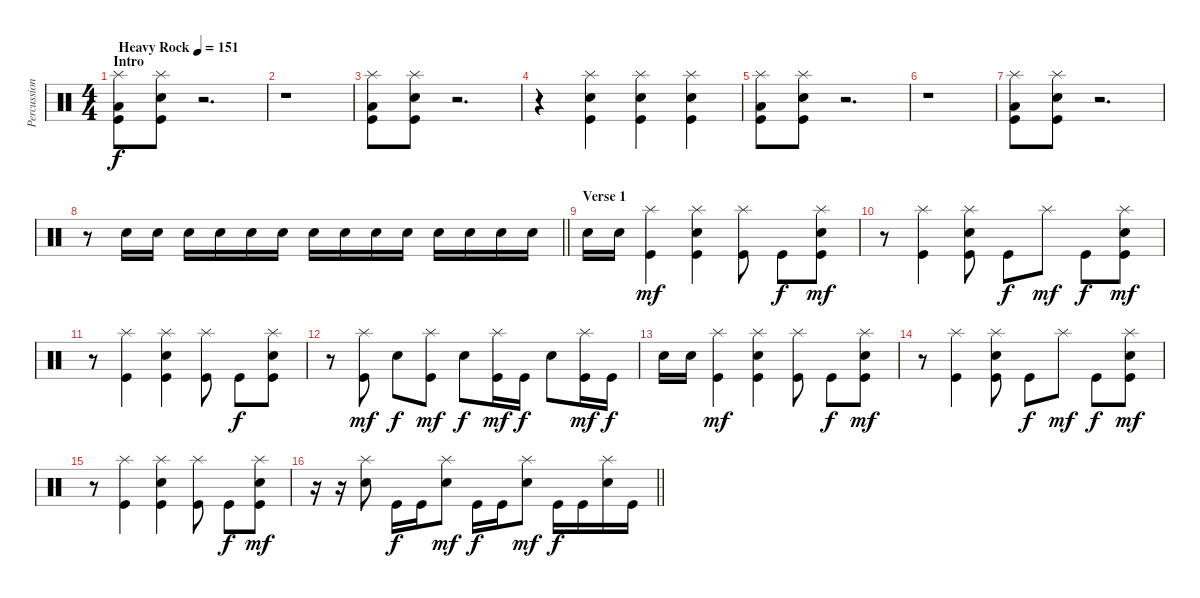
\track ("Percussion" "Percussion") {instrument percussion}
\staff {score}
\articulation defaults
\ts (4 4)
\section ("" "Intro")
\tempo (151 "Heavy Rock")
\clef neutral
\ks c
("Splash (hit)" "Low Tom (hit)" "Kick (hit)").8{dy f} ("Splash (hit)" "Snare (hit) 2" "Kick (hit)").8 r.2{d} |
r.1 |
("Splash (hit)" "Low Tom (hit)" "Kick (hit)").8 ("Splash (hit)" "Snare (hit) 2" "Kick (hit)").8 r.2{d} |
r.4 ("Splash (hit)" "Electric Snare (hit)" "Kick (hit)").4 ("Splash (hit)" "Snare (hit) 2" "Kick (hit)").4 ("Splash (hit)" "Electric Snare (hit)" "Kick (hit)").4 |
("Splash (hit)" "Low Tom (hit)" "Kick (hit)").8 ("Splash (hit)" "Snare (hit) 2" "Kick (hit)").8 r.2{d} |
r.1 |
("Splash (hit)" "Low Tom (hit)" "Kick (hit)").8 ("Splash (hit)" "Snare (hit) 2" "Kick (hit)").8 r.2{d} |
\barLineRight lightlight
r.8 "Electric Snare (hit)".16 "Electric Snare (hit)".16 "Electric Snare (hit)".16 "Electric Snare (hit)".16 "Electric Snare (hit)".16 "Electric Snare (hit)".16 "Electric Snare (hit)".16 "Electric Snare (hit)".16 "Electric Snare (hit)".16 "Electric Snare (hit)".16 "Electric Snare (hit)".16 "Electric Snare (hit)".16 "Electric Snare (hit)".16 "Electric Snare (hit)".16 |
\section ("" "Verse 1")
"Electric Snare (hit)".16 "Electric Snare (hit)".16 ("Splash (hit)" "Kick (hit)").4{dy mf} ("Splash (hit)" "Snare (hit) 2" "Kick (hit)").4 ("Splash (hit)" "Kick (hit)").8 "Kick (hit)".8{dy f} ("Splash (hit)" "Snare (hit) 2" "Kick (hit)").8{dy mf} |
r.8 ("Splash (hit)" "Kick (hit)").4 ("Splash (hit)" "Snare (hit) 2" "Kick (hit)").8 "Kick (hit)".8{dy f} "Splash (hit)".8{dy mf} "Kick (hit)".8{dy f} ("Splash (hit)" "Snare (hit) 2" "Kick (hit)").8{dy mf} |
r.8 ("Splash (hit)" "Kick (hit)").4 ("Splash (hit)" "Snare (hit) 2" "Kick (hit)").4 ("Splash (hit)" "Kick (hit)").8 "Kick (hit)".8{dy f} ("Splash (hit)" "Snare (hit) 2" "Kick (hit)").8 |
r.8 ("Splash (hit)" "Kick (hit)").8{dy mf} "Snare (hit) 2".8{dy f} ("Splash (hit)" "Kick (hit)").8{dy mf} "Snare (hit) 2".8{dy f} ("Splash (hit)" "Kick (hit)").16{dy mf} "Kick (hit)".16{dy f} "Snare (hit) 2".8 ("Splash (hit)" "Kick (hit)").16{dy mf} "Kick (hit)".16{dy f} |
"Electric Snare (hit)".16 "Electric Snare (hit)".16 ("Splash (hit)" "Kick (hit)").4{dy mf} ("Splash (hit)" "Snare (hit) 2" "Kick (hit)").4 ("Splash (hit)" "Kick (hit)").8 "Kick (hit)".8{dy f} ("Splash (hit)" "Snare (hit) 2" "Kick (hit)").8{dy mf} |
r.8 ("Splash (hit)" "Kick (hit)").4 ("Splash (hit)" "Snare (hit) 2" "Kick (hit)").8 "Kick (hit)".8{dy f} "Splash (hit)".8{dy mf} "Kick (hit)".8{dy f} ("Splash (hit)" "Snare (hit) 2" "Kick (hit)").8{dy mf} |
r.8 ("Splash (hit)" "Kick (hit)").4 ("Splash (hit)" "Snare (hit) 2" "Kick (hit)").4 ("Splash (hit)" "Kick (hit)").8 "Kick (hit)".8{dy f} ("Splash (hit)" "Snare (hit) 2" "Kick (hit)").8{dy mf} |
\barLineRight lightlight
r.16 r.16 ("Splash (hit)" "Snare (hit) 2").8 "Kick (hit)".16{dy f} "Kick (hit)".16 ("Splash (hit)" "Snare (hit) 2").8{dy mf} "Kick (hit)".16{dy f} "Kick (hit)".16 ("Splash (hit)" "Snare (hit) 2").8{dy mf} "Kick (hit)".16{dy f} "Kick (hit)".16 ("Splash (hit)" "Snare (hit) 2").16 "Kick (hit)".16
